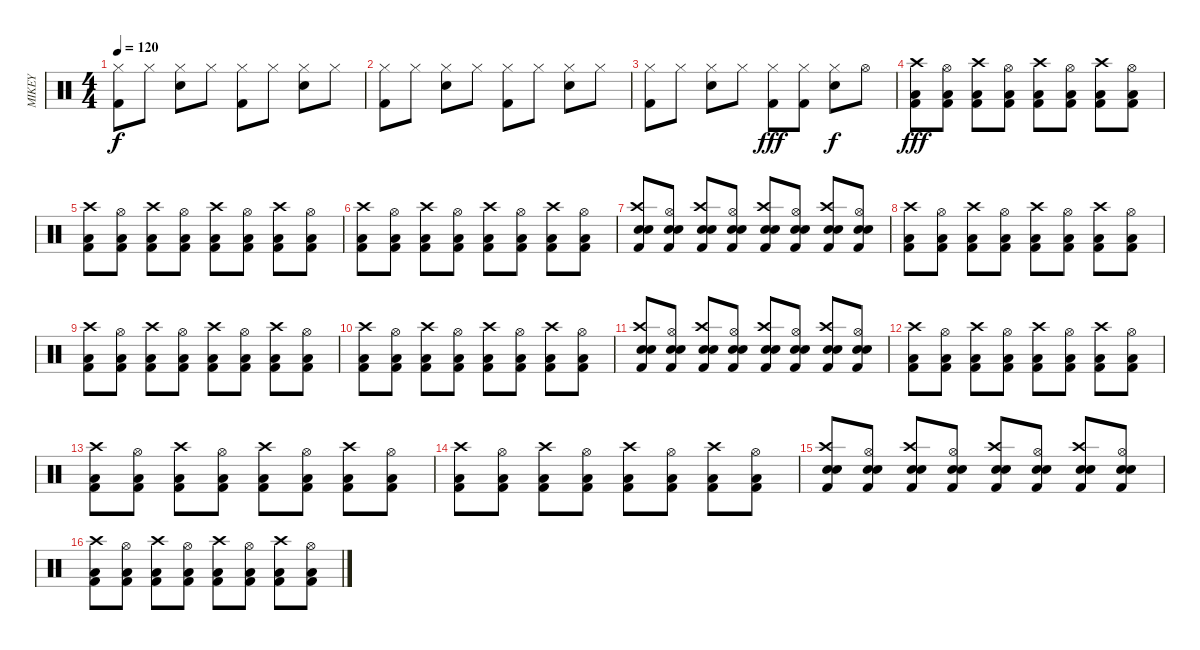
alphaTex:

\track ("MIKEY" "MIKEY") {instrument percussion}
\staff {score}
\articulation defaults
\ts (4 4)
\tempo 120
\clef neutral
\ks c
("Hi-Hat (closed)" "Kick (hit) 2").8{dy f} "Hi-Hat (closed)".8 ("Hi-Hat (closed)" "Snare (hit) 2").8 "Hi-Hat (closed)".8 ("Hi-Hat (closed)" "Kick (hit) 2").8 "Hi-Hat (closed)".8 ("Hi-Hat (closed)" "Snare (hit) 2").8 "Hi-Hat (closed)".8 |
("Hi-Hat (closed)" "Kick (hit) 2").8 "Hi-Hat (closed)".8 ("Hi-Hat (closed)" "Snare (hit) 2").8 "Hi-Hat (closed)".8 ("Hi-Hat (closed)" "Kick (hit) 2").8 "Hi-Hat (closed)".8 ("Hi-Hat (closed)" "Snare (hit) 2").8 "Hi-Hat (closed)".8 |
("Hi-Hat (closed)" "Kick (hit) 2").8 "Hi-Hat (closed)".8 ("Hi-Hat (closed)" "Snare (hit) 2").8 "Hi-Hat (closed)".8 ("Hi-Hat (closed)" "Kick (hit) 2").8{dy fff} ("Hi-Hat (closed)" "Kick (hit) 2").8 ("Hi-Hat (closed)" "Snare (hit) 2").8{dy f} "Hi-Hat (open)".8 |
("Low Floor Tom (hit)" "Kick (hit) 2" "Crash high (hit)").8{dy fff} ("Low Floor Tom (hit)" "Hi-Hat (open)" "Kick (hit) 2").8 ("Low Floor Tom (hit)" "Kick (hit) 2" "Crash high (hit)").8 ("Low Floor Tom (hit)" "Hi-Hat (open)" "Kick (hit) 2").8 ("Low Floor Tom (hit)" "Kick (hit) 2" "Crash high (hit)").8 ("Low Floor Tom (hit)" "Hi-Hat (open)" "Kick (hit) 2").8 ("Low Floor Tom (hit)" "Kick (hit) 2" "Crash high (hit)").8 ("Low Floor Tom (hit)" "Hi-Hat (open)" "Kick (hit) 2").8 |
("Low Floor Tom (hit)" "Kick (hit) 2" "Crash high (hit)").8 ("Low Floor Tom (hit)" "Hi-Hat (open)" "Kick (hit) 2").8 ("Low Floor Tom (hit)" "Kick (hit) 2" "Crash high (hit)").8 ("Low Floor Tom (hit)" "Hi-Hat (open)" "Kick (hit) 2").8 ("Low Floor Tom (hit)" "Kick (hit) 2" "Crash high (hit)").8 ("Low Floor Tom (hit)" "Hi-Hat (open)" "Kick (hit) 2").8 ("Low Floor Tom (hit)" "Kick (hit) 2" "Crash high (hit)").8 ("Low Floor Tom (hit)" "Hi-Hat (open)" "Kick (hit) 2").8 |
("Low Floor Tom (hit)" "Kick (hit) 2" "Crash high (hit)").8 ("Low Floor Tom (hit)" "Hi-Hat (open)" "Kick (hit) 2").8 ("Low Floor Tom (hit)" "Kick (hit) 2" "Crash high (hit)").8 ("Low Floor Tom (hit)" "Hi-Hat (open)" "Kick (hit) 2").8 ("Low Floor Tom (hit)" "Kick (hit) 2" "Crash high (hit)").8 ("Low Floor Tom (hit)" "Hi-Hat (open)" "Kick (hit) 2").8 ("Low Floor Tom (hit)" "Kick (hit) 2" "Crash high (hit)").8 ("Low Floor Tom (hit)" "Hi-Hat (open)" "Kick (hit) 2").8 |
("Electric Snare (hit)" "Kick (hit) 2" "Electric Snare (hit)" "Crash high (hit)").8 ("Electric Snare (hit)" "Kick (hit) 2" "Hi-Hat (open)" "Electric Snare (hit)").8 ("Electric Snare (hit)" "Kick (hit) 2" "Electric Snare (hit)" "Crash high (hit)").8 ("Electric Snare (hit)" "Kick (hit) 2" "Hi-Hat (open)" "Electric Snare (hit)").8 ("Electric Snare (hit)" "Kick (hit) 2" "Electric Snare (hit)" "Crash high (hit)").8 ("Electric Snare (hit)" "Kick (hit) 2" "Hi-Hat (open)" "Electric Snare (hit)").8 ("Electric Snare (hit)" "Kick (hit) 2" "Electric Snare (hit)" "Crash high (hit)").8 ("Electric Snare (hit)" "Kick (hit) 2" "Hi-Hat (open)" "Electric Snare (hit)").8 |
("Low Floor Tom (hit)" "Kick (hit) 2" "Crash high (hit)").8 ("Low Floor Tom (hit)" "Hi-Hat (open)" "Kick (hit) 2").8 ("Low Floor Tom (hit)" "Kick (hit) 2" "Crash high (hit)").8 ("Low Floor Tom (hit)" "Hi-Hat (open)" "Kick (hit) 2").8 ("Low Floor Tom (hit)" "Kick (hit) 2" "Crash high (hit)").8 ("Low Floor Tom (hit)" "Hi-Hat (open)" "Kick (hit) 2").8 ("Low Floor Tom (hit)" "Kick (hit) 2" "Crash high (hit)").8 ("Low Floor Tom (hit)" "Hi-Hat (open)" "Kick (hit) 2").8 |
("Low Floor Tom (hit)" "Kick (hit) 2" "Crash high (hit)").8 ("Low Floor Tom (hit)" "Hi-Hat (open)" "Kick (hit) 2").8 ("Low Floor Tom (hit)" "Kick (hit) 2" "Crash high (hit)").8 ("Low Floor Tom (hit)" "Hi-Hat (open)" "Kick (hit) 2").8 ("Low Floor Tom (hit)" "Kick (hit) 2" "Crash high (hit)").8 ("Low Floor Tom (hit)" "Hi-Hat (open)" "Kick (hit) 2").8 ("Low Floor Tom (hit)" "Kick (hit) 2" "Crash high (hit)").8 ("Low Floor Tom (hit)" "Hi-Hat (open)" "Kick (hit) 2").8 |
("Low Floor Tom (hit)" "Kick (hit) 2" "Crash high (hit)").8 ("Low Floor Tom (hit)" "Hi-Hat (open)" "Kick (hit) 2").8 ("Low Floor Tom (hit)" "Kick (hit) 2" "Crash high (hit)").8 ("Low Floor Tom (hit)" "Hi-Hat (open)" "Kick (hit) 2").8 ("Low Floor Tom (hit)" "Kick (hit) 2" "Crash high (hit)").8 ("Low Floor Tom (hit)" "Hi-Hat (open)" "Kick (hit) 2").8 ("Low Floor Tom (hit)" "Kick (hit) 2" "Crash high (hit)").8 ("Low Floor Tom (hit)" "Hi-Hat (open)" "Kick (hit) 2").8 |
("Electric Snare (hit)" "Kick (hit) 2" "Electric Snare (hit)" "Crash high (hit)").8 ("Electric Snare (hit)" "Kick (hit) 2" "Hi-Hat (open)" "Electric Snare (hit)").8 ("Electric Snare (hit)" "Kick (hit) 2" "Electric Snare (hit)" "Crash high (hit)").8 ("Electric Snare (hit)" "Kick (hit) 2" "Hi-Hat (open)" "Electric Snare (hit)").8 ("Electric Snare (hit)" "Kick (hit) 2" "Electric Snare (hit)" "Crash high (hit)").8 ("Electric Snare (hit)" "Kick (hit) 2" "Hi-Hat (open)" "Electric Snare (hit)").8 ("Electric Snare (hit)" "Kick (hit) 2" "Electric Snare (hit)" "Crash high (hit)").8 ("Electric Snare (hit)" "Kick (hit) 2" "Hi-Hat (open)" "Electric Snare (hit)").8 |
("Low Floor Tom (hit)" "Kick (hit) 2" "Crash high (hit)").8 ("Low Floor Tom (hit)" "Hi-Hat (open)" "Kick (hit) 2").8 ("Low Floor Tom (hit)" "Kick (hit) 2" "Crash high (hit)").8 ("Low Floor Tom (hit)" "Hi-Hat (open)" "Kick (hit) 2").8 ("Low Floor Tom (hit)" "Kick (hit) 2" "Crash high (hit)").8 ("Low Floor Tom (hit)" "Hi-Hat (open)" "Kick (hit) 2").8 ("Low Floor Tom (hit)" "Kick (hit) 2" "Crash high (hit)").8 ("Low Floor Tom (hit)" "Hi-Hat (open)" "Kick (hit) 2").8 |
("Low Floor Tom (hit)" "Kick (hit) 2" "Crash high (hit)").8 ("Low Floor Tom (hit)" "Hi-Hat (open)" "Kick (hit) 2").8 ("Low Floor Tom (hit)" "Kick (hit) 2" "Crash high (hit)").8 ("Low Floor Tom (hit)" "Hi-Hat (open)" "Kick (hit) 2").8 ("Low Floor Tom (hit)" "Kick (hit) 2" "Crash high (hit)").8 ("Low Floor Tom (hit)" "Hi-Hat (open)" "Kick (hit) 2").8 ("Low Floor Tom (hit)" "Kick (hit) 2" "Crash high (hit)").8 ("Low Floor Tom (hit)" "Hi-Hat (open)" "Kick (hit) 2").8 |
("Low Floor Tom (hit)" "Kick (hit) 2" "Crash high (hit)").8 ("Low Floor Tom (hit)" "Hi-Hat (open)" "Kick (hit) 2").8 ("Low Floor Tom (hit)" "Kick (hit) 2" "Crash high (hit)").8 ("Low Floor Tom (hit)" "Hi-Hat (open)" "Kick (hit) 2").8 ("Low Floor Tom (hit)" "Kick (hit) 2" "Crash high (hit)").8 ("Low Floor Tom (hit)" "Hi-Hat (open)" "Kick (hit) 2").8 ("Low Floor Tom (hit)" "Kick (hit) 2" "Crash high (hit)").8 ("Low Floor Tom (hit)" "Hi-Hat (open)" "Kick (hit) 2").8 |
("Electric Snare (hit)" "Kick (hit) 2" "Electric Snare (hit)" "Crash high (hit)").8 ("Electric Snare (hit)" "Kick (hit) 2" "Hi-Hat (open)" "Electric Snare (hit)").8 ("Electric Snare (hit)" "Kick (hit) 2" "Electric Snare (hit)" "Crash high (hit)").8 ("Electric Snare (hit)" "Kick (hit) 2" "Hi-Hat (open)" "Electric Snare (hit)").8 ("Electric Snare (hit)" "Kick (hit) 2" "Electric Snare (hit)" "Crash high (hit)").8 ("Electric Snare (hit)" "Kick (hit) 2" "Hi-Hat (open)" "Electric Snare (hit)").8 ("Electric Snare (hit)" "Kick (hit) 2" "Electric Snare (hit)" "Crash high (hit)").8 ("Electric Snare (hit)" "Kick (hit) 2" "Hi-Hat (open)" "Electric Snare (hit)").8 |
("Low Floor Tom (hit)" "Kick (hit) 2" "Crash high (hit)").8 ("Low Floor Tom (hit)" "Hi-Hat (open)" "Kick (hit) 2").8 ("Low Floor Tom (hit)" "Kick (hit) 2" "Crash high (hit)").8 ("Low Floor Tom (hit)" "Hi-Hat (open)" "Kick (hit) 2").8 ("Low Floor Tom (hit)" "Kick (hit) 2" "Crash high (hit)").8 ("Low Floor Tom (hit)" "Hi-Hat (open)" "Kick (hit) 2").8 ("Low Floor Tom (hit)" "Kick (hit) 2" "Crash high (hit)").8 ("Low Floor Tom (hit)" "Hi-Hat (open)" "Kick (hit) 2").8
